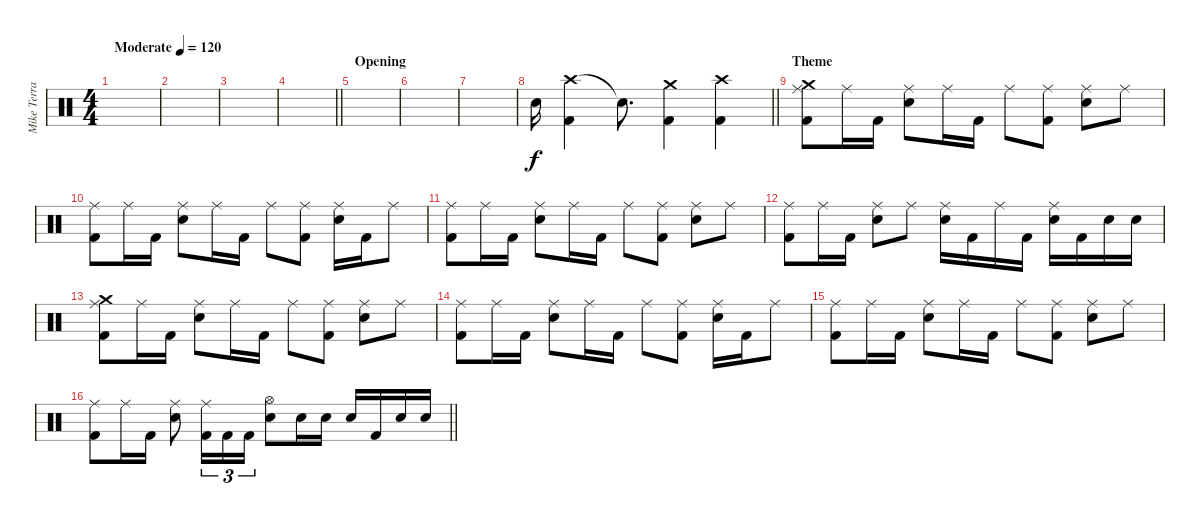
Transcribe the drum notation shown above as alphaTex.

\track ("Mike Terrana" "Mike Terra") {instrument percussion}
\staff {score}
\articulation defaults
\ts (4 4)
\tempo (120 "Moderate")
\clef neutral
\ks c
|
|
|
\barLineRight lightlight
|
\section ("" "Opening")
|
|
|
\barLineRight lightlight "Snare (hit) 2".16
("Crash high (hit)" "Kick (hit) 2").4 "Snare (hit)"{t}.8{d} ("Crash medium (hit)" "Kick (hit) 2").4 ("Crash high (hit)" "Kick (hit) 2").4 |
\section ("" "Theme")
("Crash medium (hit)" "Ride (middle)" "Kick (hit) 2").8 "Ride (middle)".16 "Kick (hit) 2".16 ("Ride (middle)" "Snare (hit) 2").8 "Ride (middle)".16 "Kick (hit) 2".16 "Ride (middle)".8 ("Ride (middle)" "Kick (hit) 2").8 ("Ride (middle)" "Snare (hit) 2").8 "Ride (middle)".8 |
("Ride (middle)" "Kick (hit) 2").8 "Ride (middle)".16 "Kick (hit) 2".16 ("Ride (middle)" "Snare (hit) 2").8 "Ride (middle)".16 "Kick (hit) 2".16 "Ride (middle)".8 ("Ride (middle)" "Kick (hit) 2").8 ("Ride (middle)" "Snare (hit) 2").16 "Kick (hit) 2".16 "Ride (middle)".8 |
("Ride (middle)" "Kick (hit) 2").8 "Ride (middle)".16 "Kick (hit) 2".16 ("Ride (middle)" "Snare (hit) 2").8 "Ride (middle)".16 "Kick (hit) 2".16 "Ride (middle)".8 ("Ride (middle)" "Kick (hit) 2").8 ("Ride (middle)" "Snare (hit) 2").8 "Ride (middle)".8 |
("Ride (middle)" "Kick (hit) 2").8 "Ride (middle)".16 "Kick (hit) 2".16 ("Ride (middle)" "Snare (hit) 2").8 "Ride (middle)".8 ("Ride (middle)" "Snare (hit) 2").16 "Kick (hit) 2".16 "Ride (middle)".16 "Kick (hit) 2".16 ("Ride (middle)" "Snare (hit) 2").16 "Kick (hit) 2".16 "Snare (hit) 2".16 "Snare (hit) 2".16 |
("Crash medium (hit)" "Ride (middle)" "Kick (hit) 2").8 "Ride (middle)".16 "Kick (hit) 2".16 ("Ride (middle)" "Snare (hit) 2").8 "Ride (middle)".16 "Kick (hit) 2".16 "Ride (middle)".8 ("Ride (middle)" "Kick (hit) 2").8 ("Ride (middle)" "Snare (hit) 2").8 "Ride (middle)".8 |
("Ride (middle)" "Kick (hit) 2").8 "Ride (middle)".16 "Kick (hit) 2".16 ("Ride (middle)" "Snare (hit) 2").8 "Ride (middle)".16 "Kick (hit) 2".16 "Ride (middle)".8 ("Ride (middle)" "Kick (hit) 2").8 ("Ride (middle)" "Snare (hit) 2").16 "Kick (hit) 2".16 "Ride (middle)".8 |
("Ride (middle)" "Kick (hit) 2").8 "Ride (middle)".16 "Kick (hit) 2".16 ("Ride (middle)" "Snare (hit) 2").8 "Ride (middle)".16 "Kick (hit) 2".16 "Ride (middle)".8 ("Ride (middle)" "Kick (hit) 2").8 ("Ride (middle)" "Snare (hit) 2").8 "Ride (middle)".8 |
\barLineRight lightlight
("Ride (middle)" "Kick (hit) 2").8 "Ride (middle)".16 "Kick (hit) 2".16 ("Ride (middle)" "Snare (hit) 2").8 ("Ride (middle)" "Kick (hit) 2").16{tu (3 2)} "Kick (hit) 2".16{tu (3 2)} "Kick (hit) 2".16{tu (3 2)} ("Hi-Hat (open)" "Snare (hit) 2").8 "Snare (hit) 2".16 "Snare (hit) 2".16 "Snare (hit) 2".16 "Kick (hit) 2".16 "Snare (hit) 2".16 "Snare (hit) 2".16
